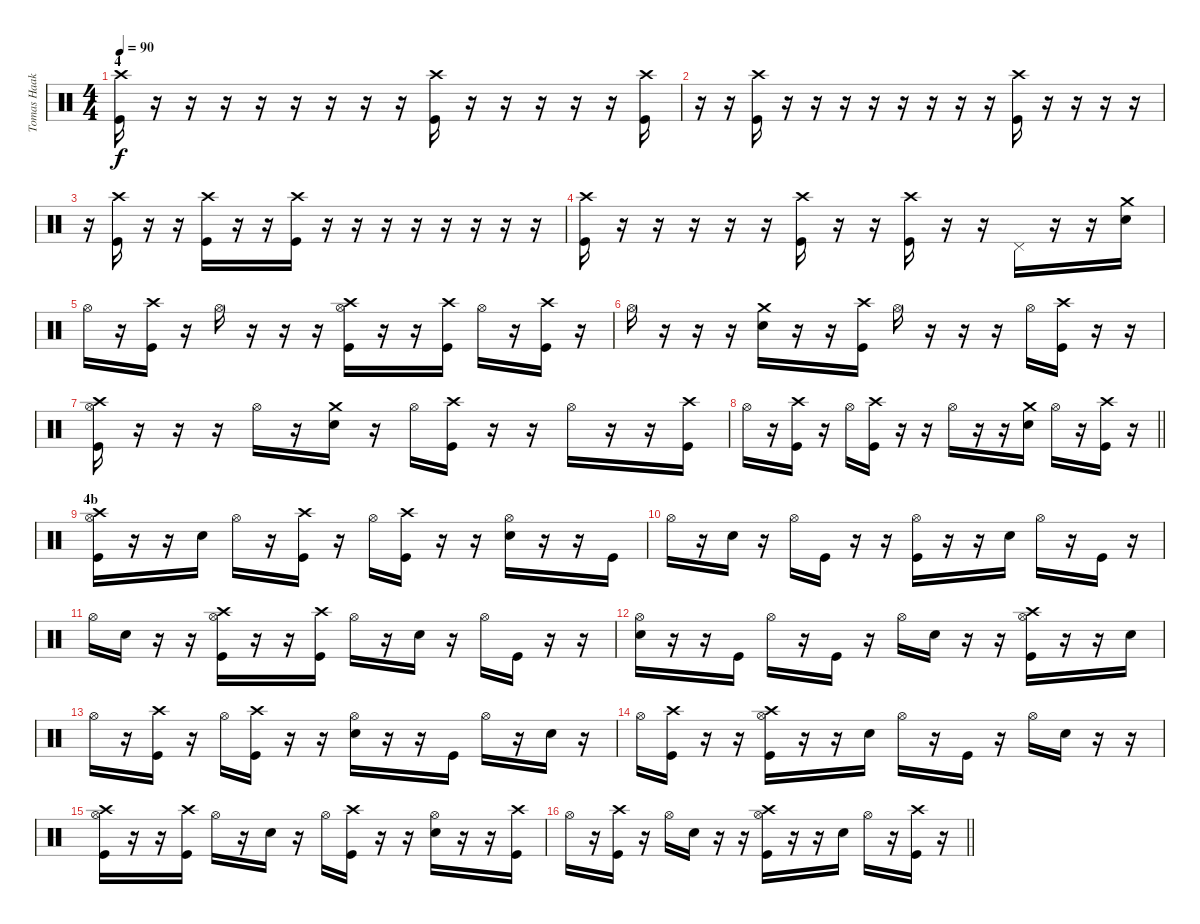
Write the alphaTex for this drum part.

\track ("Tomas Haake" "Tomas Haak") {instrument percussion}
\staff {score}
\articulation defaults
\ts (4 4)
\section ("" "4")
\tempo 90
\clef neutral
\ks c
("Crash high (hit)" "Kick (hit)").16{dy f} r.16 r.16 r.16 r.16 r.16 r.16 r.16 r.16 ("Crash high (hit)" "Kick (hit)").16 r.16 r.16 r.16 r.16 r.16 ("Crash high (hit)" "Kick (hit)").16 |
r.16 r.16 ("Crash high (hit)" "Kick (hit)").16 r.16 r.16 r.16 r.16 r.16 r.16 r.16 r.16 ("Crash high (hit)" "Kick (hit)").16 r.16 r.16 r.16 r.16 |
r.16 ("Crash high (hit)" "Kick (hit)").16 r.16 r.16 ("Crash high (hit)" "Kick (hit)").16 r.16 r.16 ("Crash high (hit)" "Kick (hit)").16 r.16 r.16 r.16 r.16 r.16 r.16 r.16 r.16 |
("Crash high (hit)" "Kick (hit)").16 r.16 r.16 r.16 r.16 r.16 ("Crash high (hit)" "Kick (hit)").16 r.16 r.16 ("Crash high (hit)" "Kick (hit)").16 r.16 r.16 "Pedal Hi-Hat (hit)".16 r.16 r.16 ("Crash medium (hit)" "Electric Snare (hit)").16 |
"Hi-Hat (open)".16 r.16 ("Crash high (hit)" "Kick (hit)").16 r.16 "Hi-Hat (open)".16 r.16 r.16 r.16 ("Crash high (hit)" "Hi-Hat (open)" "Kick (hit)").16 r.16 r.16 ("Crash high (hit)" "Kick (hit)").16 "Hi-Hat (open)".16 r.16 ("Crash high (hit)" "Kick (hit)").16 r.16 |
"Hi-Hat (open)".16 r.16 r.16 r.16 ("Crash medium (hit)" "Electric Snare (hit)").16 r.16 r.16 ("Crash high (hit)" "Kick (hit)").16 "Hi-Hat (open)".16 r.16 r.16 r.16 "Hi-Hat (open)".16 ("Crash high (hit)" "Kick (hit)").16 r.16 r.16 |
("Crash high (hit)" "Hi-Hat (open)" "Kick (hit)").16 r.16 r.16 r.16 "Hi-Hat (open)".16 r.16 ("Crash medium (hit)" "Electric Snare (hit)").16 r.16 "Hi-Hat (open)".16 ("Crash high (hit)" "Kick (hit)").16 r.16 r.16 "Hi-Hat (open)".16 r.16 r.16 ("Crash high (hit)" "Kick (hit)").16 |
\barLineRight lightlight "Hi-Hat (open)".16
r.16 ("Crash high (hit)" "Kick (hit)").16 r.16 "Hi-Hat (open)".16 ("Crash high (hit)" "Kick (hit)").16 r.16 r.16 "Hi-Hat (open)".16 r.16 r.16 ("Crash medium (hit)" "Electric Snare (hit)").16 "Hi-Hat (open)".16 r.16 ("Crash high (hit)" "Kick (hit)").16 r.16 |
\section ("" "4b")
("Crash high (hit)" "Hi-Hat (open)" "Kick (hit)").16 r.16 r.16 "Electric Snare (hit)".16 "Hi-Hat (open)".16 r.16 ("Crash high (hit)" "Kick (hit)").16 r.16 "Hi-Hat (open)".16 ("Crash high (hit)" "Kick (hit)").16 r.16 r.16 ("Hi-Hat (open)" "Electric Snare (hit)").16 r.16 r.16 "Kick (hit)".16 |
"Hi-Hat (open)".16 r.16 "Electric Snare (hit)".16 r.16 "Hi-Hat (open)".16 "Kick (hit)".16 r.16 r.16 ("Hi-Hat (open)" "Kick (hit)").16 r.16 r.16 "Electric Snare (hit)".16 "Hi-Hat (open)".16 r.16 "Kick (hit)".16 r.16 |
"Hi-Hat (open)".16 "Electric Snare (hit)".16 r.16 r.16 ("Crash high (hit)" "Hi-Hat (open)" "Kick (hit)").16 r.16 r.16 ("Crash high (hit)" "Kick (hit)").16 "Hi-Hat (open)".16 r.16 "Electric Snare (hit)".16 r.16 "Hi-Hat (open)".16 "Kick (hit)".16 r.16 r.16 |
("Hi-Hat (open)" "Electric Snare (hit)").16 r.16 r.16 "Kick (hit)".16 "Hi-Hat (open)".16 r.16 "Kick (hit)".16 r.16 "Hi-Hat (open)".16 "Electric Snare (hit)".16 r.16 r.16 ("Crash high (hit)" "Hi-Hat (open)" "Kick (hit)").16 r.16 r.16 "Electric Snare (hit)".16 |
"Hi-Hat (open)".16 r.16 ("Crash high (hit)" "Kick (hit)").16 r.16 "Hi-Hat (open)".16 ("Crash high (hit)" "Kick (hit)").16 r.16 r.16 ("Hi-Hat (open)" "Electric Snare (hit)").16 r.16 r.16 "Kick (hit)".16 "Hi-Hat (open)".16 r.16 "Electric Snare (hit)".16 r.16 |
"Hi-Hat (open)".16 ("Crash high (hit)" "Kick (hit)").16 r.16 r.16 ("Crash high (hit)" "Hi-Hat (open)" "Kick (hit)").16 r.16 r.16 "Electric Snare (hit)".16 "Hi-Hat (open)".16 r.16 "Kick (hit)".16 r.16 "Hi-Hat (open)".16 "Electric Snare (hit)".16 r.16 r.16 |
("Crash high (hit)" "Hi-Hat (open)" "Kick (hit)").16 r.16 r.16 ("Crash high (hit)" "Kick (hit)").16 "Hi-Hat (open)".16 r.16 "Electric Snare (hit)".16 r.16 "Hi-Hat (open)".16 ("Crash high (hit)" "Kick (hit)").16 r.16 r.16 ("Hi-Hat (open)" "Electric Snare (hit)").16 r.16 r.16 ("Crash high (hit)" "Kick (hit)").16 |
\barLineRight lightlight "Hi-Hat (open)".16
r.16 ("Crash high (hit)" "Kick (hit)").16 r.16 "Hi-Hat (open)".16 "Electric Snare (hit)".16 r.16 r.16 ("Crash high (hit)" "Hi-Hat (open)" "Kick (hit)").16 r.16 r.16 "Electric Snare (hit)".16 "Hi-Hat (open)".16 r.16 ("Crash high (hit)" "Kick (hit)").16 r.16
